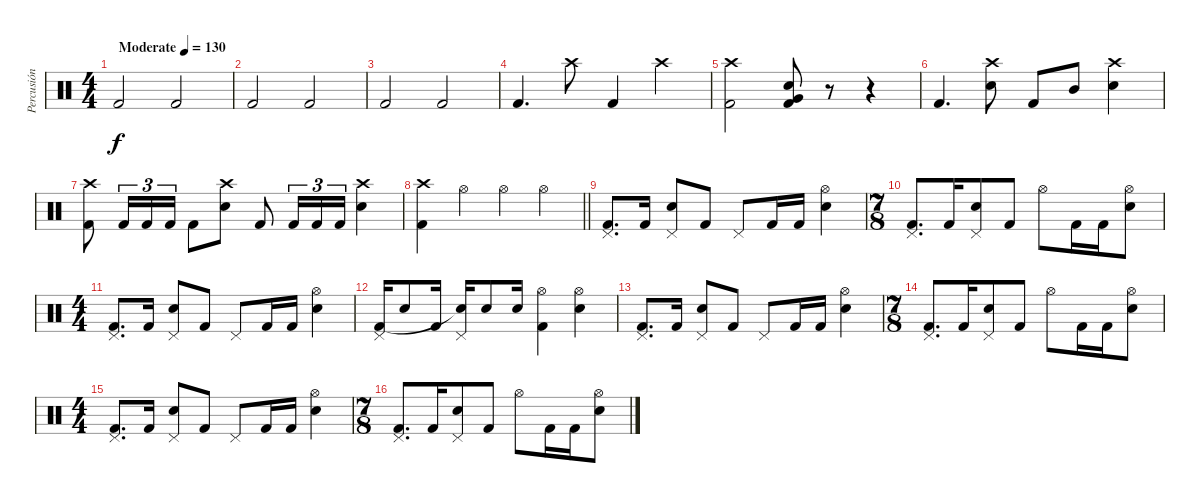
\track ("Percusión" "Percusión") {instrument percussion}
\staff {score}
\articulation defaults
\ts (4 4)
\tempo (130 "Moderate")
\clef neutral
\ks c "Kick (hit) 2".2{dy f} "Kick (hit) 2".2
|
"Kick (hit) 2".2 "Kick (hit) 2".2 |
"Kick (hit) 2".2 "Kick (hit) 2".2 |
"Kick (hit) 2".4{d} "Crash high (hit)".8 "Kick (hit) 2".4 "Crash high (hit)".4 |
("Crash high (hit)" "Kick (hit) 2").2 ("Snare (hit) 2" "Very Low Tom (hit)" "Kick (hit) 2").8 r.8 r.4 |
"Kick (hit) 2".4{d} ("Crash high (hit)" "Snare (hit) 2").8 "Kick (hit) 2".8 "Mid Tom (hit)".8 ("Crash high (hit)" "Snare (hit) 2").4 |
("Crash high (hit)" "Kick (hit) 2").8 "Kick (hit) 2".16{tu (3 2)} "Kick (hit) 2".16{tu (3 2)} "Kick (hit) 2".16{tu (3 2)} "Kick (hit) 2".8 ("Crash high (hit)" "Snare (hit) 2").8 "Kick (hit) 2".8 "Kick (hit) 2".16{tu (3 2)} "Kick (hit) 2".16{tu (3 2)} "Kick (hit) 2".16{tu (3 2)} ("Crash high (hit)" "Snare (hit) 2").4 |
\barLineRight lightlight
("Crash high (hit)" "Kick (hit) 2").4 "Hi-Hat (open)".4 "Hi-Hat (open)".4 "Hi-Hat (open)".4 |
("Pedal Hi-Hat (hit)" "Kick (hit) 2").8{d} "Kick (hit) 2".16 ("Pedal Hi-Hat (hit)" "Snare (hit) 2").8 "Kick (hit) 2".8 "Pedal Hi-Hat (hit)".8 "Kick (hit) 2".16 "Kick (hit) 2".16 ("Hi-Hat (open)" "Snare (hit) 2").4 |
\ts (7 8)
("Pedal Hi-Hat (hit)" "Kick (hit) 2").8{d} "Kick (hit) 2".16 ("Pedal Hi-Hat (hit)" "Snare (hit) 2").8 "Kick (hit) 2".8 "Hi-Hat (open)".8 "Kick (hit) 2".16 "Kick (hit) 2".16 ("Hi-Hat (open)" "Snare (hit) 2").8 |
\ts (4 4)
("Pedal Hi-Hat (hit)" "Kick (hit) 2").8{d} "Kick (hit) 2".16 ("Pedal Hi-Hat (hit)" "Snare (hit) 2").8 "Kick (hit) 2".8 "Pedal Hi-Hat (hit)".8 "Kick (hit) 2".16 "Kick (hit) 2".16 ("Hi-Hat (open)" "Snare (hit) 2").4 |
("Pedal Hi-Hat (hit)" "Kick (hit) 2").16 "Snare (hit) 2".8 "Kick (hit) 2".16 ("Pedal Hi-Hat (hit)" "Snare (hit)"{t}).16 "Snare (hit) 2".8 "Snare (hit) 2".16 ("Hi-Hat (open)" "Kick (hit) 2").4 ("Hi-Hat (open)" "Snare (hit) 2").4 |
("Pedal Hi-Hat (hit)" "Kick (hit) 2").8{d} "Kick (hit) 2".16 ("Pedal Hi-Hat (hit)" "Snare (hit) 2").8 "Kick (hit) 2".8 "Pedal Hi-Hat (hit)".8 "Kick (hit) 2".16 "Kick (hit) 2".16 ("Hi-Hat (open)" "Snare (hit) 2").4 |
\ts (7 8)
("Pedal Hi-Hat (hit)" "Kick (hit) 2").8{d} "Kick (hit) 2".16 ("Pedal Hi-Hat (hit)" "Snare (hit) 2").8 "Kick (hit) 2".8 "Hi-Hat (open)".8 "Kick (hit) 2".16 "Kick (hit) 2".16 ("Hi-Hat (open)" "Snare (hit) 2").8 |
\ts (4 4)
("Pedal Hi-Hat (hit)" "Kick (hit) 2").8{d} "Kick (hit) 2".16 ("Pedal Hi-Hat (hit)" "Snare (hit) 2").8 "Kick (hit) 2".8 "Pedal Hi-Hat (hit)".8 "Kick (hit) 2".16 "Kick (hit) 2".16 ("Hi-Hat (open)" "Snare (hit) 2").4 |
\ts (7 8)
("Pedal Hi-Hat (hit)" "Kick (hit) 2").8{d} "Kick (hit) 2".16 ("Pedal Hi-Hat (hit)" "Snare (hit) 2").8 "Kick (hit) 2".8 "Hi-Hat (open)".8 "Kick (hit) 2".16 "Kick (hit) 2".16 ("Hi-Hat (open)" "Snare (hit) 2").8
